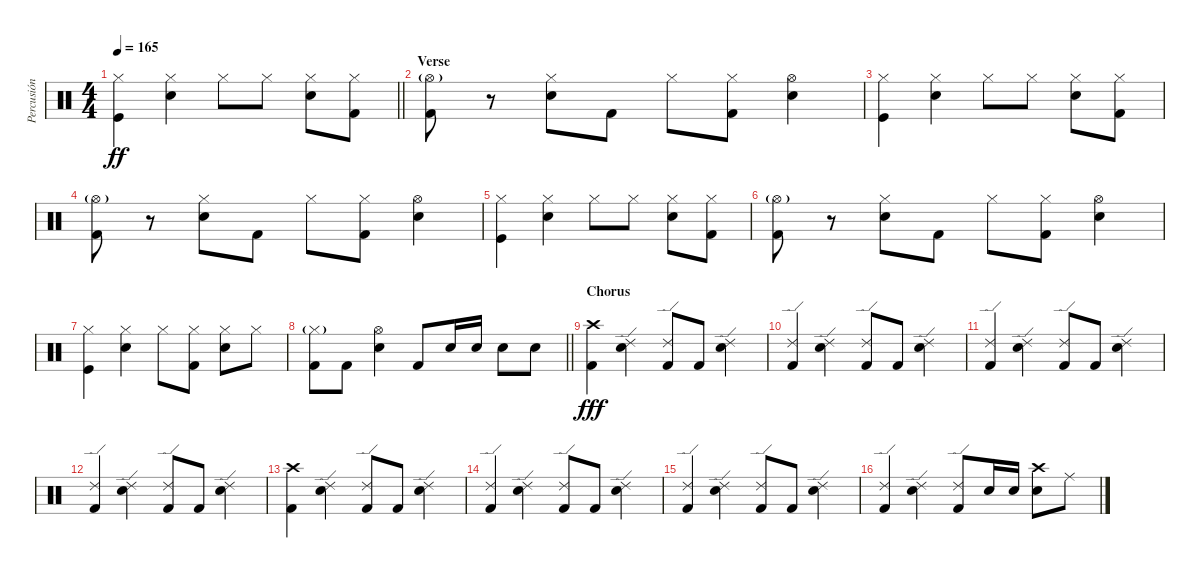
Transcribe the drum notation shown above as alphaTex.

\track ("Percusión" "Percusión") {instrument percussion}
\staff {score}
\articulation defaults
\ts (4 4)
\tempo 165
\clef neutral
\barLineRight lightlight
\ks c
("Kick (hit)" "Hi-Hat (closed)").4{dy ff} ("Electric Snare (hit)" "Hi-Hat (closed)").4 "Hi-Hat (closed)".8 "Hi-Hat (closed)".8 ("Electric Snare (hit)" "Hi-Hat (closed)").8 ("Kick (hit) 2" "Hi-Hat (closed)").8 |
\section ("" "Verse")
("Kick (hit) 2" "Hi-Hat (open)"{g}).8 r.8 ("Electric Snare (hit)" "Hi-Hat (closed)").8 "Kick (hit) 2".8 "Hi-Hat (closed)".8 ("Kick (hit) 2" "Hi-Hat (closed)").8 ("Electric Snare (hit)" "Hi-Hat (open)").4 |
("Kick (hit)" "Hi-Hat (closed)").4 ("Electric Snare (hit)" "Hi-Hat (closed)").4 "Hi-Hat (closed)".8 "Hi-Hat (closed)".8 ("Electric Snare (hit)" "Hi-Hat (closed)").8 ("Kick (hit) 2" "Hi-Hat (closed)").8 |
("Kick (hit) 2" "Hi-Hat (open)"{g}).8 r.8 ("Electric Snare (hit)" "Hi-Hat (closed)").8 "Kick (hit) 2".8 "Hi-Hat (closed)".8 ("Kick (hit) 2" "Hi-Hat (closed)").8 ("Electric Snare (hit)" "Hi-Hat (open)").4 |
("Kick (hit)" "Hi-Hat (closed)").4 ("Electric Snare (hit)" "Hi-Hat (closed)").4 "Hi-Hat (closed)".8 "Hi-Hat (closed)".8 ("Electric Snare (hit)" "Hi-Hat (closed)").8 ("Kick (hit) 2" "Hi-Hat (closed)").8 |
("Kick (hit) 2" "Hi-Hat (open)"{g}).8 r.8 ("Electric Snare (hit)" "Hi-Hat (closed)").8 "Kick (hit) 2".8 "Hi-Hat (closed)".8 ("Kick (hit) 2" "Hi-Hat (closed)").8 ("Electric Snare (hit)" "Hi-Hat (open)").4 |
("Kick (hit)" "Hi-Hat (closed)").4 ("Electric Snare (hit)" "Hi-Hat (closed)").4 "Hi-Hat (closed)".8 ("Kick (hit) 2" "Hi-Hat (closed)").8 ("Electric Snare (hit)" "Hi-Hat (closed)").8 "Hi-Hat (closed)".8 |
\barLineRight lightlight
("Kick (hit) 2" "Hi-Hat (closed)"{g}).8 "Kick (hit) 2".8 ("Electric Snare (hit)" "Hi-Hat (open)").4 "Kick (hit) 2".8 "Electric Snare (hit)".16 "Electric Snare (hit)".16 "Electric Snare (hit)".8 "Electric Snare (hit)".8 |
\section ("" "Chorus")
("Kick (hit) 2" "Crash high (hit)").4{dy fff} ("Electric Snare (hit)" "Ride (edge) 2").4 ("Kick (hit) 2" "Ride (edge) 2").8 "Kick (hit) 2".8 ("Electric Snare (hit)" "Ride (edge) 2").4 |
("Kick (hit) 2" "Ride (edge) 2").4 ("Electric Snare (hit)" "Ride (edge) 2").4 ("Kick (hit) 2" "Ride (edge) 2").8 "Kick (hit) 2".8 ("Electric Snare (hit)" "Ride (edge) 2").4 |
("Kick (hit) 2" "Ride (edge) 2").4 ("Electric Snare (hit)" "Ride (edge) 2").4 ("Kick (hit) 2" "Ride (edge) 2").8 "Kick (hit) 2".8 ("Electric Snare (hit)" "Ride (edge) 2").4 |
("Kick (hit) 2" "Ride (edge) 2").4 ("Electric Snare (hit)" "Ride (edge) 2").4 ("Kick (hit) 2" "Ride (edge) 2").8 "Kick (hit) 2".8 ("Electric Snare (hit)" "Ride (edge) 2").4 |
("Kick (hit) 2" "Crash high (hit)").4 ("Electric Snare (hit)" "Ride (edge) 2").4 ("Kick (hit) 2" "Ride (edge) 2").8 "Kick (hit) 2".8 ("Electric Snare (hit)" "Ride (edge) 2").4 |
("Kick (hit) 2" "Ride (edge) 2").4 ("Electric Snare (hit)" "Ride (edge) 2").4 ("Kick (hit) 2" "Ride (edge) 2").8 "Kick (hit) 2".8 ("Electric Snare (hit)" "Ride (edge) 2").4 |
("Kick (hit) 2" "Ride (edge) 2").4 ("Electric Snare (hit)" "Ride (edge) 2").4 ("Kick (hit) 2" "Ride (edge) 2").8 "Kick (hit) 2".8 ("Electric Snare (hit)" "Ride (edge) 2").4 |
("Kick (hit) 2" "Ride (edge) 2").4 ("Electric Snare (hit)" "Ride (edge) 2").4 ("Kick (hit) 2" "Ride (edge) 2").8 "Electric Snare (hit)".16 "Electric Snare (hit)".16 ("Electric Snare (hit)" "Crash high (hit)").8 "Ride (middle)".8
